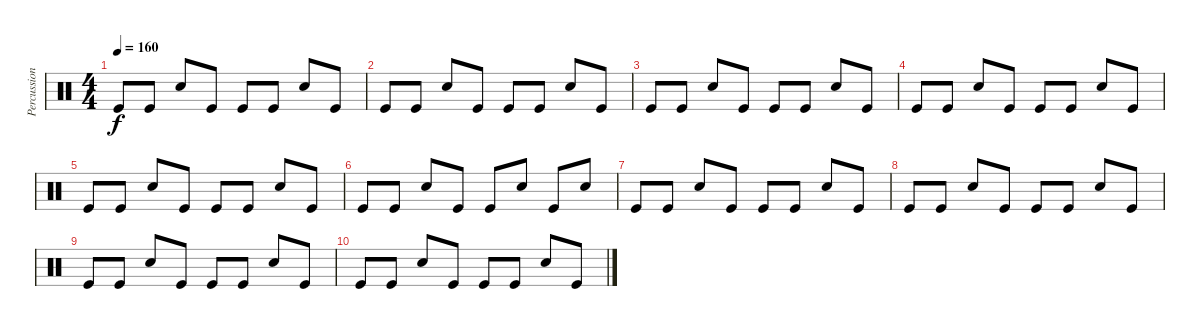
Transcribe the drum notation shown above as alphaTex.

\track ("Percussion" "Percussion") {instrument percussion}
\staff {score}
\articulation defaults
\ts (4 4)
\tempo 160
\clef neutral
\ks c "Kick (hit)".8{dy f} "Kick (hit)".8 "Snare (hit) 2".8 "Kick (hit)".8 "Kick (hit)".8 "Kick (hit)".8 "Snare (hit) 2".8 "Kick (hit)".8
|
"Kick (hit)".8 "Kick (hit)".8 "Snare (hit) 2".8 "Kick (hit)".8 "Kick (hit)".8 "Kick (hit)".8 "Snare (hit) 2".8 "Kick (hit)".8 |
"Kick (hit)".8 "Kick (hit)".8 "Snare (hit) 2".8 "Kick (hit)".8 "Kick (hit)".8 "Kick (hit)".8 "Snare (hit) 2".8 "Kick (hit)".8 |
"Kick (hit)".8 "Kick (hit)".8 "Snare (hit) 2".8 "Kick (hit)".8 "Kick (hit)".8 "Kick (hit)".8 "Snare (hit) 2".8 "Kick (hit)".8 |
"Kick (hit)".8 "Kick (hit)".8 "Snare (hit) 2".8 "Kick (hit)".8 "Kick (hit)".8 "Kick (hit)".8 "Snare (hit) 2".8 "Kick (hit)".8 |
"Kick (hit)".8 "Kick (hit)".8 "Snare (hit) 2".8 "Kick (hit)".8 "Kick (hit)".8 "Snare (hit) 2".8 "Kick (hit)".8 "Snare (hit) 2".8 |
"Kick (hit)".8 "Kick (hit)".8 "Snare (hit) 2".8 "Kick (hit)".8 "Kick (hit)".8 "Kick (hit)".8 "Snare (hit) 2".8 "Kick (hit)".8 |
"Kick (hit)".8 "Kick (hit)".8 "Snare (hit) 2".8 "Kick (hit)".8 "Kick (hit)".8 "Kick (hit)".8 "Snare (hit) 2".8 "Kick (hit)".8 |
"Kick (hit)".8 "Kick (hit)".8 "Snare (hit) 2".8 "Kick (hit)".8 "Kick (hit)".8 "Kick (hit)".8 "Snare (hit) 2".8 "Kick (hit)".8 |
"Kick (hit)".8 "Kick (hit)".8 "Snare (hit) 2".8 "Kick (hit)".8 "Kick (hit)".8 "Kick (hit)".8 "Snare (hit) 2".8 "Kick (hit)".8
